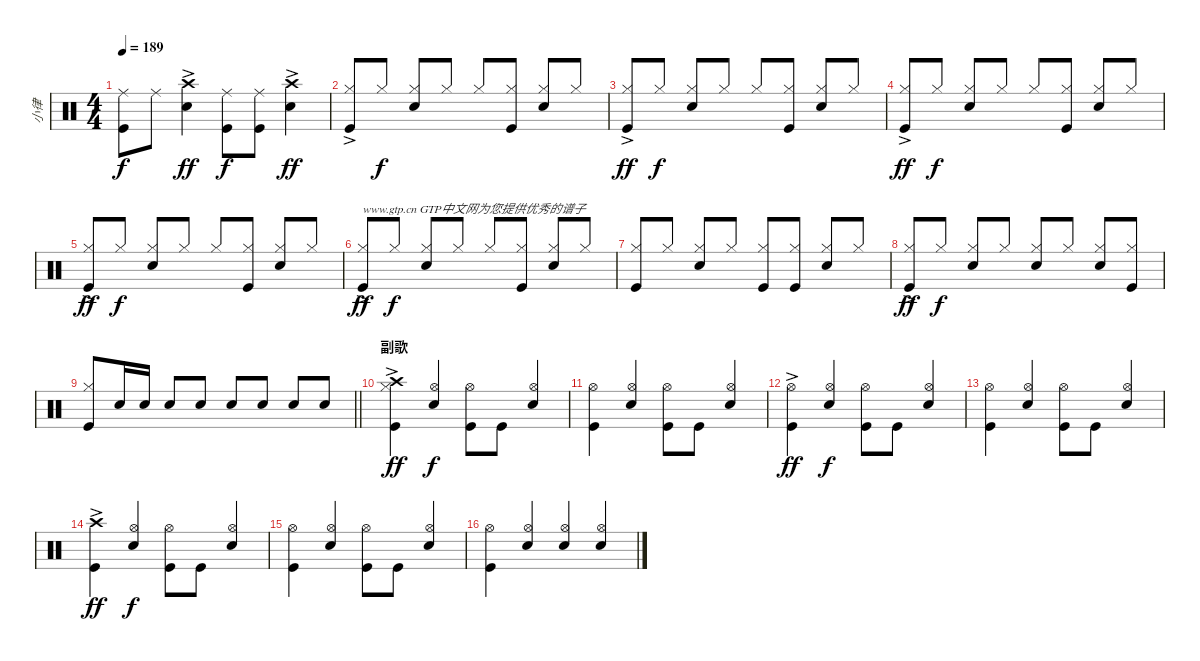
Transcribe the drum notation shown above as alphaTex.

\track ("小律" "小律") {instrument percussion}
\staff {score}
\articulation defaults
\ts (4 4)
\tempo 189
\clef neutral
\ks c
("Ride (middle)" "Kick (hit)").8{dy f beam Down} "Ride (middle)".8{beam Down} ("Crash high (hit)"{ac} "Snare (hit) 2").4{dy ff beam Down} ("Ride (middle)" "Kick (hit)").8{dy f beam Down} ("Ride (middle)" "Kick (hit)").8{beam Down} ("Crash high (hit)"{ac} "Snare (hit) 2").4{dy ff beam Down} |
("Kick (hit)" "Hi-Hat (closed)"{ac}).8{beam Up} "Hi-Hat (closed)".8{dy f beam Up} ("Snare (hit) 2" "Hi-Hat (closed)").8{beam Up} "Hi-Hat (closed)".8{beam Up} "Hi-Hat (closed)".8{beam Up} ("Hi-Hat (closed)" "Kick (hit)").8{beam Up} ("Hi-Hat (closed)" "Snare (hit) 2").8{beam Up} "Hi-Hat (closed)".8{beam Up} |
("Kick (hit)" "Hi-Hat (closed)"{ac}).8{dy ff beam Up} "Hi-Hat (closed)".8{dy f beam Up} ("Snare (hit) 2" "Hi-Hat (closed)").8{beam Up} "Hi-Hat (closed)".8{beam Up} "Hi-Hat (closed)".8{beam Up} ("Hi-Hat (closed)" "Kick (hit)").8{beam Up} ("Hi-Hat (closed)" "Snare (hit) 2").8{beam Up} "Hi-Hat (closed)".8{beam Up} |
("Kick (hit)" "Hi-Hat (closed)"{ac}).8{dy ff beam Up} "Hi-Hat (closed)".8{dy f beam Up} ("Snare (hit) 2" "Hi-Hat (closed)").8{beam Up} "Hi-Hat (closed)".8{beam Up} "Hi-Hat (closed)".8{beam Up} ("Hi-Hat (closed)" "Kick (hit)").8{beam Up} ("Hi-Hat (closed)" "Snare (hit) 2").8{beam Up} "Hi-Hat (closed)".8{beam Up} |
("Kick (hit)" "Hi-Hat (closed)"{ac}).8{dy ff beam Up} "Hi-Hat (closed)".8{dy f beam Up} ("Snare (hit) 2" "Hi-Hat (closed)").8{beam Up} "Hi-Hat (closed)".8{beam Up} "Hi-Hat (closed)".8{beam Up} ("Hi-Hat (closed)" "Kick (hit)").8{beam Up} ("Hi-Hat (closed)" "Snare (hit) 2").8{beam Up} "Hi-Hat (closed)".8{beam Up} |
("Hi-Hat (closed)"{ac} "Kick (hit)").8{txt "www.gtp.cn GTP中文网为您提供优秀的谱子" dy ff beam Up} "Hi-Hat (closed)".8{dy f beam Up} ("Hi-Hat (closed)" "Snare (hit) 2").8{beam Up} "Hi-Hat (closed)".8{beam Up} "Hi-Hat (closed)".8{beam Up} ("Hi-Hat (closed)" "Kick (hit)").8{beam Up} ("Hi-Hat (closed)" "Snare (hit) 2").8{beam Up} "Hi-Hat (closed)".8{beam Up} |
("Hi-Hat (closed)" "Kick (hit)").8{beam Up} "Hi-Hat (closed)".8{beam Up} ("Hi-Hat (closed)" "Snare (hit) 2").8{beam Up} "Hi-Hat (closed)".8{beam Up} ("Hi-Hat (closed)" "Kick (hit)").8{beam Up} ("Hi-Hat (closed)" "Kick (hit)").8{beam Up} ("Hi-Hat (closed)" "Snare (hit) 2").8{beam Up} "Hi-Hat (closed)".8{beam Up} |
("Hi-Hat (closed)"{ac} "Kick (hit)").8{dy ff beam Up} "Hi-Hat (closed)".8{dy f beam Up} ("Hi-Hat (closed)" "Snare (hit) 2").8{beam Up} "Hi-Hat (closed)".8{beam Up} ("Hi-Hat (closed)" "Snare (hit) 2").8{beam Up} "Hi-Hat (closed)".8{beam Up} ("Hi-Hat (closed)" "Snare (hit) 2").8{beam Up} ("Hi-Hat (closed)" "Kick (hit)").8{beam Up} |
\barLineRight lightlight
("Hi-Hat (closed)" "Kick (hit)").8{beam Up} "Snare (hit) 2".16{beam Up} "Snare (hit) 2".16{beam Up} "Snare (hit) 2".8{beam Up} "Snare (hit) 2".8{beam Up} "Snare (hit) 2".8{beam Up} "Snare (hit) 2".8{beam Up} "Snare (hit) 2".8{beam Up} "Snare (hit) 2".8{beam Up} |
\section ("" "副歌")
("Kick (hit)" "Hi-Hat (closed)"{ac} "Crash high (hit)").4{dy ff} ("Snare (hit) 2" "Hi-Hat (open)").4{dy f beam Up} ("Hi-Hat (open)" "Kick (hit)").8 "Kick (hit)".8 ("Snare (hit) 2" "Hi-Hat (open)").4{beam Up} |
("Hi-Hat (open)" "Kick (hit)").4 ("Hi-Hat (open)" "Snare (hit) 2").4{beam Up} ("Hi-Hat (open)" "Kick (hit)").8 "Kick (hit)".8 ("Hi-Hat (open)" "Snare (hit) 2").4{beam Up} |
("Kick (hit)" "Hi-Hat (open)"{ac}).4{dy ff} ("Snare (hit) 2" "Hi-Hat (open)").4{dy f beam Up} ("Hi-Hat (open)" "Kick (hit)").8 "Kick (hit)".8 ("Snare (hit) 2" "Hi-Hat (open)").4{beam Up} |
("Hi-Hat (open)" "Kick (hit)").4 ("Hi-Hat (open)" "Snare (hit) 2").4{beam Up} ("Hi-Hat (open)" "Kick (hit)").8 "Kick (hit)".8 ("Hi-Hat (open)" "Snare (hit) 2").4{beam Up} |
("Kick (hit)" "Crash high (hit)"{ac}).4{dy ff} ("Snare (hit) 2" "Hi-Hat (open)").4{dy f beam Up} ("Hi-Hat (open)" "Kick (hit)").8 "Kick (hit)".8 ("Snare (hit) 2" "Hi-Hat (open)").4{beam Up} |
("Hi-Hat (open)" "Kick (hit)").4 ("Hi-Hat (open)" "Snare (hit) 2").4{beam Up} ("Hi-Hat (open)" "Kick (hit)").8 "Kick (hit)".8 ("Hi-Hat (open)" "Snare (hit) 2").4{beam Up} |
("Kick (hit)" "Hi-Hat (open)").4 ("Hi-Hat (open)" "Snare (hit) 2").4{beam Up} ("Hi-Hat (open)" "Snare (hit) 2").4{beam Up} ("Hi-Hat (open)" "Snare (hit) 2").4{beam Up}
